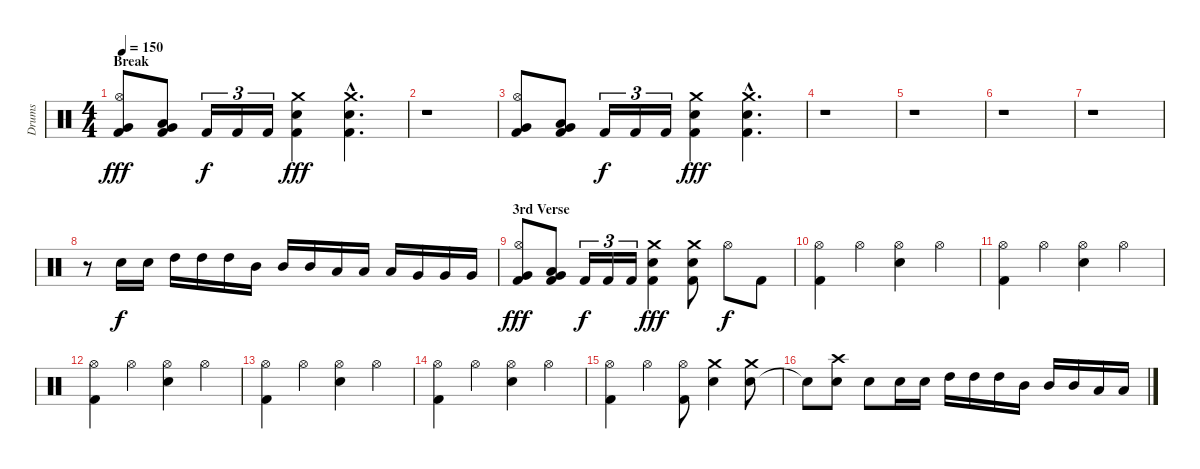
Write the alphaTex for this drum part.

\track ("Drums" "Drums") {instrument percussion}
\staff {score}
\articulation defaults
\ts (4 4)
\section ("" "Break")
\tempo 150
\clef neutral
\ks c
("Kick (hit) 2" "Hi-Hat (open)" "Very Low Tom (hit)").8{dy fff} ("Kick (hit) 2" "Low Tom (hit)" "Very Low Tom (hit)").8 "Kick (hit) 2".16{tu (3 2) dy f} "Kick (hit) 2".16{tu (3 2)} "Kick (hit) 2".16{tu (3 2)} ("Kick (hit) 2" "Electric Snare (hit)" "Crash medium (hit)").4{dy fff} ("Kick (hit) 2"{hac} "Electric Snare (hit)"{hac} "Crash medium (hit)"{hac}).4{d} |
r.1 |
("Kick (hit) 2" "Hi-Hat (open)" "Very Low Tom (hit)").8 ("Kick (hit) 2" "Low Tom (hit)" "Very Low Tom (hit)").8 "Kick (hit) 2".16{tu (3 2) dy f} "Kick (hit) 2".16{tu (3 2)} "Kick (hit) 2".16{tu (3 2)} ("Kick (hit) 2" "Electric Snare (hit)" "Crash medium (hit)").4{dy fff} ("Kick (hit) 2"{hac} "Electric Snare (hit)"{hac} "Crash medium (hit)"{hac}).4{d} |
r.1 |
r.1 |
r.1 |
r.1 |
r.8 "Electric Snare (hit)".16{dy f} "Electric Snare (hit)".16 "High Tom (hit)".16 "High Tom (hit)".16 "High Tom (hit)".16 "Mid Tom (hit)".16 "Mid Tom (hit)".16 "Mid Tom (hit)".16 "Low Tom (hit)".16 "Low Tom (hit)".16 "Low Tom (hit)".16 "Very Low Tom (hit)".16 "Very Low Tom (hit)".16 "Very Low Tom (hit)".16 |
\section ("" "3rd Verse")
("Kick (hit) 2" "Hi-Hat (open)" "Very Low Tom (hit)").8{dy fff} ("Kick (hit) 2" "Low Tom (hit)" "Very Low Tom (hit)").8 "Kick (hit) 2".16{tu (3 2) dy f} "Kick (hit) 2".16{tu (3 2)} "Kick (hit) 2".16{tu (3 2)} ("Kick (hit) 2" "Electric Snare (hit)" "Crash medium (hit)").4{dy fff} ("Kick (hit) 2" "Electric Snare (hit)" "Crash medium (hit)").8 "Hi-Hat (open)".8{dy f} "Kick (hit) 2".8 |
("Kick (hit) 2" "Hi-Hat (open)").4 "Hi-Hat (open)".4 ("Electric Snare (hit)" "Hi-Hat (open)").4 "Hi-Hat (open)".4 |
("Kick (hit) 2" "Hi-Hat (open)").4 "Hi-Hat (open)".4 ("Electric Snare (hit)" "Hi-Hat (open)").4 "Hi-Hat (open)".4 |
("Kick (hit) 2" "Hi-Hat (open)").4 "Hi-Hat (open)".4 ("Electric Snare (hit)" "Hi-Hat (open)").4 "Hi-Hat (open)".4 |
("Kick (hit) 2" "Hi-Hat (open)").4 "Hi-Hat (open)".4 ("Electric Snare (hit)" "Hi-Hat (open)").4 "Hi-Hat (open)".4 |
("Kick (hit) 2" "Hi-Hat (open)").4 "Hi-Hat (open)".4 ("Electric Snare (hit)" "Hi-Hat (open)").4 "Hi-Hat (open)".4 |
("Kick (hit) 2" "Hi-Hat (open)").4 "Hi-Hat (open)".4 ("Kick (hit) 2" "Hi-Hat (open)").8 ("Electric Snare (hit)" "Crash medium (hit)").4 ("Electric Snare (hit)" "Crash medium (hit)").8 |
"Snare (hit)"{t}.8 ("Electric Snare (hit)" "Crash high (hit)").8 "Electric Snare (hit)".8 "Electric Snare (hit)".16 "Electric Snare (hit)".16 "High Tom (hit)".16 "High Tom (hit)".16 "High Tom (hit)".16 "Mid Tom (hit)".16 "Mid Tom (hit)".16 "Mid Tom (hit)".16 "Low Tom (hit)".16 "Low Tom (hit)".16
